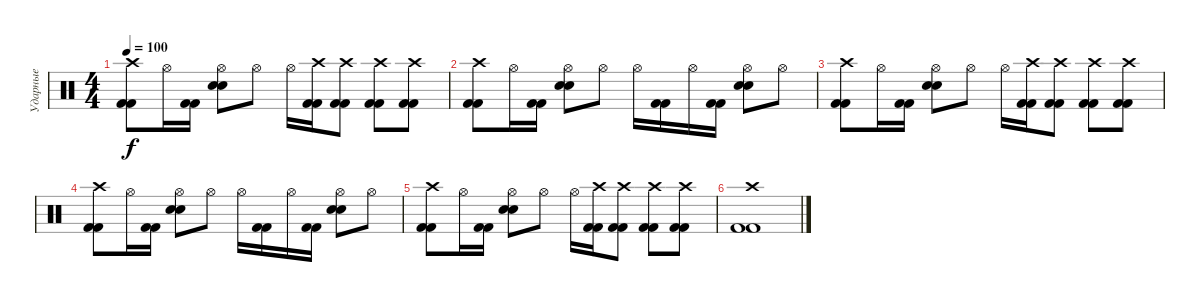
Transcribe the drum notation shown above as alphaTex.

\track ("Ударные" "Ударные") {instrument percussion}
\staff {score}
\articulation defaults
\ts (4 4)
\tempo 100
\clef neutral
\ks c
("Crash high (hit)" "Kick (hit) 2" "Kick (hit) 2").8{dy f} "Hi-Hat (open)".16 ("Kick (hit) 2" "Kick (hit) 2").16 ("Hi-Hat (open)" "Electric Snare (hit)" "Electric Snare (hit)").8 "Hi-Hat (open)".8 "Hi-Hat (open)".16 ("Crash high (hit)" "Kick (hit) 2" "Kick (hit) 2").16 ("Crash high (hit)" "Kick (hit) 2" "Kick (hit) 2").8 ("Crash high (hit)" "Kick (hit) 2" "Kick (hit) 2").8 ("Crash high (hit)" "Kick (hit) 2" "Kick (hit) 2").8 |
("Crash high (hit)" "Kick (hit) 2" "Kick (hit) 2").8 "Hi-Hat (open)".16 ("Kick (hit) 2" "Kick (hit) 2").16 ("Hi-Hat (open)" "Electric Snare (hit)" "Electric Snare (hit)").8 "Hi-Hat (open)".8 "Hi-Hat (open)".16 ("Kick (hit) 2" "Kick (hit) 2").16 "Hi-Hat (open)".16 ("Kick (hit) 2" "Kick (hit) 2").16 ("Hi-Hat (open)" "Electric Snare (hit)" "Electric Snare (hit)").8 "Hi-Hat (open)".8 |
("Crash high (hit)" "Kick (hit) 2" "Kick (hit) 2").8 "Hi-Hat (open)".16 ("Kick (hit) 2" "Kick (hit) 2").16 ("Hi-Hat (open)" "Electric Snare (hit)" "Electric Snare (hit)").8 "Hi-Hat (open)".8 "Hi-Hat (open)".16 ("Crash high (hit)" "Kick (hit) 2" "Kick (hit) 2").16 ("Crash high (hit)" "Kick (hit) 2" "Kick (hit) 2").8 ("Crash high (hit)" "Kick (hit) 2" "Kick (hit) 2").8 ("Crash high (hit)" "Kick (hit) 2" "Kick (hit) 2").8 |
("Crash high (hit)" "Kick (hit) 2" "Kick (hit) 2").8 "Hi-Hat (open)".16 ("Kick (hit) 2" "Kick (hit) 2").16 ("Hi-Hat (open)" "Electric Snare (hit)" "Electric Snare (hit)").8 "Hi-Hat (open)".8 "Hi-Hat (open)".16 ("Kick (hit) 2" "Kick (hit) 2").16 "Hi-Hat (open)".16 ("Kick (hit) 2" "Kick (hit) 2").16 ("Hi-Hat (open)" "Electric Snare (hit)" "Electric Snare (hit)").8 "Hi-Hat (open)".8 |
("Crash high (hit)" "Kick (hit) 2" "Kick (hit) 2").8 "Hi-Hat (open)".16 ("Kick (hit) 2" "Kick (hit) 2").16 ("Hi-Hat (open)" "Electric Snare (hit)" "Electric Snare (hit)").8 "Hi-Hat (open)".8 "Hi-Hat (open)".16 ("Crash high (hit)" "Kick (hit) 2" "Kick (hit) 2").16 ("Crash high (hit)" "Kick (hit) 2" "Kick (hit) 2").8 ("Crash high (hit)" "Kick (hit) 2" "Kick (hit) 2").8 ("Crash high (hit)" "Kick (hit) 2" "Kick (hit) 2").8 |
("Crash high (hit)" "Kick (hit) 2" "Kick (hit) 2").1
